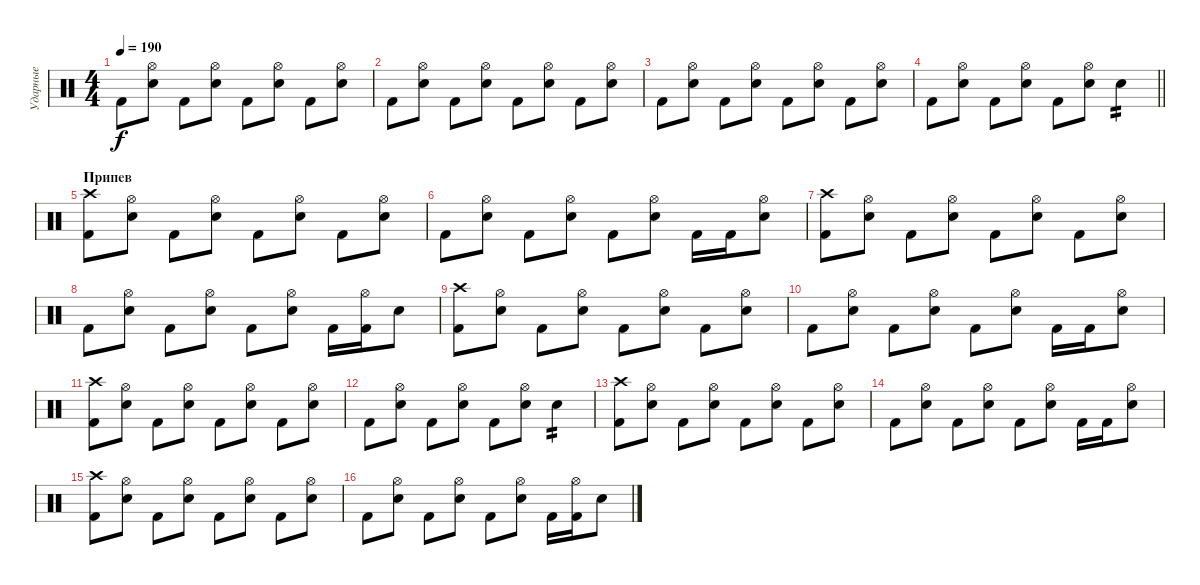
\track ("Ударные" "Ударные") {instrument percussion}
\staff {score}
\articulation defaults
\ts (4 4)
\tempo 190
\clef neutral
\ks c "Kick (hit) 2".8{dy f}
("Hi-Hat (open)" "Electric Snare (hit)").8 "Kick (hit) 2".8 ("Hi-Hat (open)" "Electric Snare (hit)").8 "Kick (hit) 2".8 ("Hi-Hat (open)" "Electric Snare (hit)").8 "Kick (hit) 2".8 ("Hi-Hat (open)" "Electric Snare (hit)").8 |
"Kick (hit) 2".8 ("Hi-Hat (open)" "Electric Snare (hit)").8 "Kick (hit) 2".8 ("Hi-Hat (open)" "Electric Snare (hit)").8 "Kick (hit) 2".8 ("Hi-Hat (open)" "Electric Snare (hit)").8 "Kick (hit) 2".8 ("Hi-Hat (open)" "Electric Snare (hit)").8 |
"Kick (hit) 2".8 ("Hi-Hat (open)" "Electric Snare (hit)").8 "Kick (hit) 2".8 ("Hi-Hat (open)" "Electric Snare (hit)").8 "Kick (hit) 2".8 ("Hi-Hat (open)" "Electric Snare (hit)").8 "Kick (hit) 2".8 ("Hi-Hat (open)" "Electric Snare (hit)").8 |
\barLineRight lightlight "Kick (hit) 2".8
("Hi-Hat (open)" "Electric Snare (hit)").8 "Kick (hit) 2".8 ("Hi-Hat (open)" "Electric Snare (hit)").8 "Kick (hit) 2".8 ("Hi-Hat (open)" "Electric Snare (hit)").8 "Electric Snare (hit)".4{tp 2} |
\section ("" "Припев")
("Crash high (hit)" "Kick (hit) 2").8 ("Hi-Hat (open)" "Electric Snare (hit)").8 "Kick (hit) 2".8 ("Hi-Hat (open)" "Electric Snare (hit)").8 "Kick (hit) 2".8 ("Hi-Hat (open)" "Electric Snare (hit)").8 "Kick (hit) 2".8 ("Hi-Hat (open)" "Electric Snare (hit)").8 |
"Kick (hit) 2".8 ("Hi-Hat (open)" "Electric Snare (hit)").8 "Kick (hit) 2".8 ("Hi-Hat (open)" "Electric Snare (hit)").8 "Kick (hit) 2".8 ("Hi-Hat (open)" "Electric Snare (hit)").8 "Kick (hit) 2".16 "Kick (hit) 2".16 ("Hi-Hat (open)" "Electric Snare (hit)").8 |
("Crash high (hit)" "Kick (hit) 2").8 ("Hi-Hat (open)" "Electric Snare (hit)").8 "Kick (hit) 2".8 ("Hi-Hat (open)" "Electric Snare (hit)").8 "Kick (hit) 2".8 ("Hi-Hat (open)" "Electric Snare (hit)").8 "Kick (hit) 2".8 ("Hi-Hat (open)" "Electric Snare (hit)").8 |
"Kick (hit) 2".8 ("Hi-Hat (open)" "Electric Snare (hit)").8 "Kick (hit) 2".8 ("Hi-Hat (open)" "Electric Snare (hit)").8 "Kick (hit) 2".8 ("Hi-Hat (open)" "Electric Snare (hit)").8 "Kick (hit) 2".16 ("Hi-Hat (open)" "Kick (hit) 2").16 "Electric Snare (hit)".8 |
("Crash high (hit)" "Kick (hit) 2").8 ("Hi-Hat (open)" "Electric Snare (hit)").8 "Kick (hit) 2".8 ("Hi-Hat (open)" "Electric Snare (hit)").8 "Kick (hit) 2".8 ("Hi-Hat (open)" "Electric Snare (hit)").8 "Kick (hit) 2".8 ("Hi-Hat (open)" "Electric Snare (hit)").8 |
"Kick (hit) 2".8 ("Hi-Hat (open)" "Electric Snare (hit)").8 "Kick (hit) 2".8 ("Hi-Hat (open)" "Electric Snare (hit)").8 "Kick (hit) 2".8 ("Hi-Hat (open)" "Electric Snare (hit)").8 "Kick (hit) 2".16 "Kick (hit) 2".16 ("Hi-Hat (open)" "Electric Snare (hit)").8 |
("Crash high (hit)" "Kick (hit) 2").8 ("Hi-Hat (open)" "Electric Snare (hit)").8 "Kick (hit) 2".8 ("Hi-Hat (open)" "Electric Snare (hit)").8 "Kick (hit) 2".8 ("Hi-Hat (open)" "Electric Snare (hit)").8 "Kick (hit) 2".8 ("Hi-Hat (open)" "Electric Snare (hit)").8 |
"Kick (hit) 2".8 ("Hi-Hat (open)" "Electric Snare (hit)").8 "Kick (hit) 2".8 ("Hi-Hat (open)" "Electric Snare (hit)").8 "Kick (hit) 2".8 ("Hi-Hat (open)" "Electric Snare (hit)").8 "Electric Snare (hit)".4{tp 2} |
("Crash high (hit)" "Kick (hit) 2").8 ("Hi-Hat (open)" "Electric Snare (hit)").8 "Kick (hit) 2".8 ("Hi-Hat (open)" "Electric Snare (hit)").8 "Kick (hit) 2".8 ("Hi-Hat (open)" "Electric Snare (hit)").8 "Kick (hit) 2".8 ("Hi-Hat (open)" "Electric Snare (hit)").8 |
"Kick (hit) 2".8 ("Hi-Hat (open)" "Electric Snare (hit)").8 "Kick (hit) 2".8 ("Hi-Hat (open)" "Electric Snare (hit)").8 "Kick (hit) 2".8 ("Hi-Hat (open)" "Electric Snare (hit)").8 "Kick (hit) 2".16 "Kick (hit) 2".16 ("Hi-Hat (open)" "Electric Snare (hit)").8 |
("Crash high (hit)" "Kick (hit) 2").8 ("Hi-Hat (open)" "Electric Snare (hit)").8 "Kick (hit) 2".8 ("Hi-Hat (open)" "Electric Snare (hit)").8 "Kick (hit) 2".8 ("Hi-Hat (open)" "Electric Snare (hit)").8 "Kick (hit) 2".8 ("Hi-Hat (open)" "Electric Snare (hit)").8 |
"Kick (hit) 2".8 ("Hi-Hat (open)" "Electric Snare (hit)").8 "Kick (hit) 2".8 ("Hi-Hat (open)" "Electric Snare (hit)").8 "Kick (hit) 2".8 ("Hi-Hat (open)" "Electric Snare (hit)").8 "Kick (hit) 2".16 ("Hi-Hat (open)" "Kick (hit) 2").16 "Electric Snare (hit)".8
